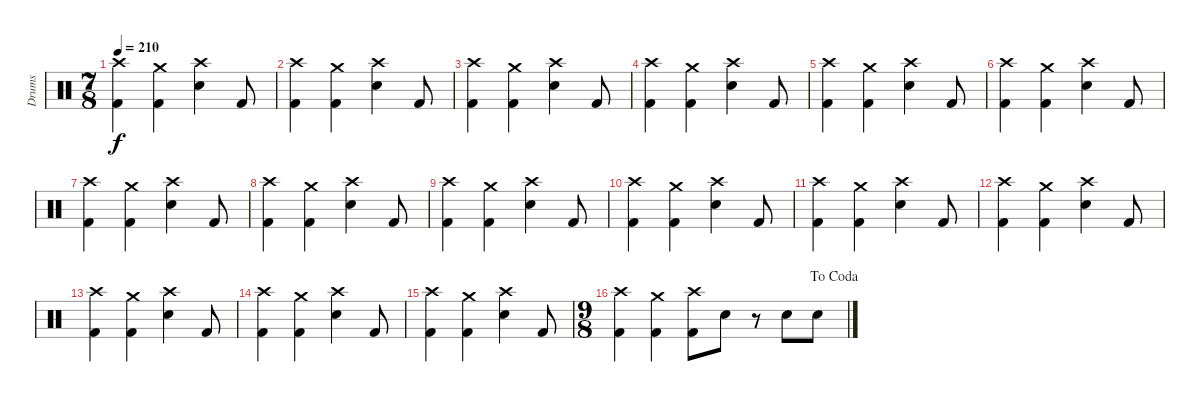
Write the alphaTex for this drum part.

\track ("Drums" "Drums") {instrument percussion}
\staff {score}
\articulation defaults
\ts (7 8)
\tempo 210
\clef neutral
\ks c
("Crash high (hit)" "Kick (hit) 2").4{dy f} ("Crash medium (hit)" "Kick (hit) 2").4 ("Crash high (hit)" "Electric Snare (hit)").4 "Kick (hit) 2".8 |
("Crash high (hit)" "Kick (hit) 2").4 ("Crash medium (hit)" "Kick (hit) 2").4 ("Crash high (hit)" "Electric Snare (hit)").4 "Kick (hit) 2".8 |
("Crash high (hit)" "Kick (hit) 2").4 ("Crash medium (hit)" "Kick (hit) 2").4 ("Crash high (hit)" "Electric Snare (hit)").4 "Kick (hit) 2".8 |
("Crash high (hit)" "Kick (hit) 2").4 ("Crash medium (hit)" "Kick (hit) 2").4 ("Crash high (hit)" "Electric Snare (hit)").4 "Kick (hit) 2".8 |
("Crash high (hit)" "Kick (hit) 2").4 ("Crash medium (hit)" "Kick (hit) 2").4 ("Crash high (hit)" "Electric Snare (hit)").4 "Kick (hit) 2".8 |
("Crash high (hit)" "Kick (hit) 2").4 ("Crash medium (hit)" "Kick (hit) 2").4 ("Crash high (hit)" "Electric Snare (hit)").4 "Kick (hit) 2".8 |
("Crash high (hit)" "Kick (hit) 2").4 ("Crash medium (hit)" "Kick (hit) 2").4 ("Crash high (hit)" "Electric Snare (hit)").4 "Kick (hit) 2".8 |
("Crash high (hit)" "Kick (hit) 2").4 ("Crash medium (hit)" "Kick (hit) 2").4 ("Crash high (hit)" "Electric Snare (hit)").4 "Kick (hit) 2".8 |
("Crash high (hit)" "Kick (hit) 2").4 ("Crash medium (hit)" "Kick (hit) 2").4 ("Crash high (hit)" "Electric Snare (hit)").4 "Kick (hit) 2".8 |
("Crash high (hit)" "Kick (hit) 2").4 ("Crash medium (hit)" "Kick (hit) 2").4 ("Crash high (hit)" "Electric Snare (hit)").4 "Kick (hit) 2".8 |
("Crash high (hit)" "Kick (hit) 2").4 ("Crash medium (hit)" "Kick (hit) 2").4 ("Crash high (hit)" "Electric Snare (hit)").4 "Kick (hit) 2".8 |
("Crash high (hit)" "Kick (hit) 2").4 ("Crash medium (hit)" "Kick (hit) 2").4 ("Crash high (hit)" "Electric Snare (hit)").4 "Kick (hit) 2".8 |
("Crash high (hit)" "Kick (hit) 2").4 ("Crash medium (hit)" "Kick (hit) 2").4 ("Crash high (hit)" "Electric Snare (hit)").4 "Kick (hit) 2".8 |
("Crash high (hit)" "Kick (hit) 2").4 ("Crash medium (hit)" "Kick (hit) 2").4 ("Crash high (hit)" "Electric Snare (hit)").4 "Kick (hit) 2".8 |
("Crash high (hit)" "Kick (hit) 2").4 ("Crash medium (hit)" "Kick (hit) 2").4 ("Crash high (hit)" "Electric Snare (hit)").4 "Kick (hit) 2".8 |
\ts (9 8)
\jump dacoda
("Crash high (hit)" "Kick (hit) 2").4 ("Crash medium (hit)" "Kick (hit) 2").4 ("Crash high (hit)" "Kick (hit) 2").8 "Electric Snare (hit)".8 r.8 "Electric Snare (hit)".8 "Electric Snare (hit)".8
